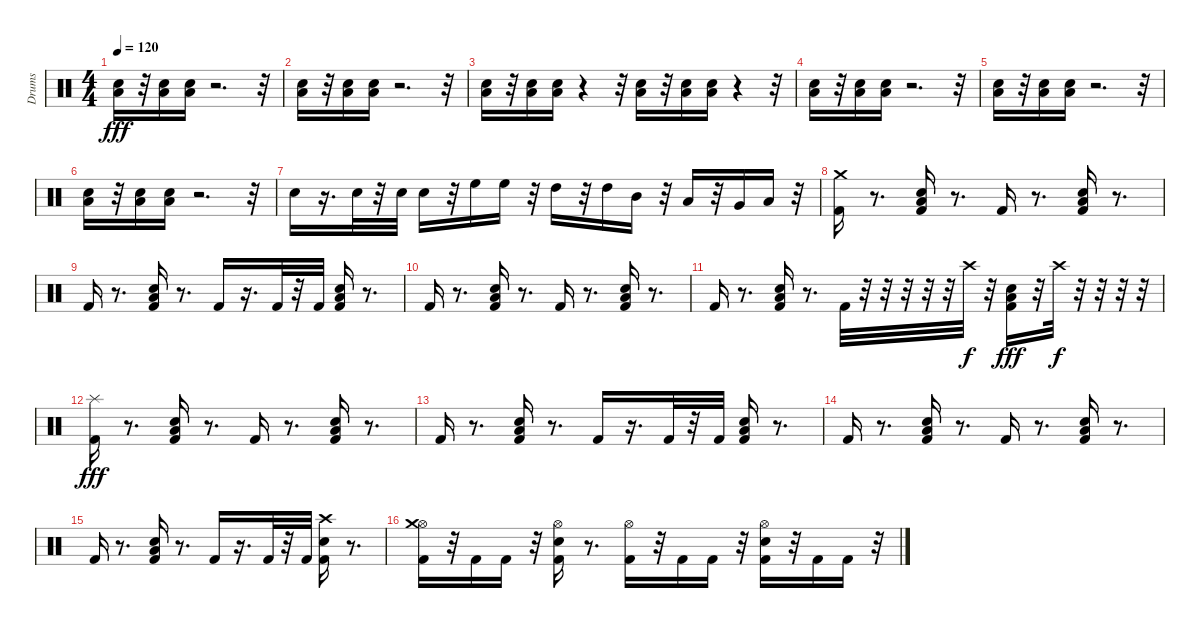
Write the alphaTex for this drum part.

\track ("Drums" "Drums") {instrument percussion}
\staff {score}
\articulation defaults
\ts (4 4)
\tempo 120
\clef neutral
\ks c
("Electric Snare (hit)" "Low Floor Tom (hit)").16{dy fff} r.32 ("Electric Snare (hit)" "Low Floor Tom (hit)").16 ("Electric Snare (hit)" "Low Floor Tom (hit)").16 r.2{d} r.32 |
("Electric Snare (hit)" "Low Floor Tom (hit)").16 r.32 ("Electric Snare (hit)" "Low Floor Tom (hit)").16 ("Electric Snare (hit)" "Low Floor Tom (hit)").16 r.2{d} r.32 |
("Electric Snare (hit)" "Low Floor Tom (hit)").16 r.32 ("Electric Snare (hit)" "Low Floor Tom (hit)").16 ("Electric Snare (hit)" "Low Floor Tom (hit)").16 r.4 r.32 ("Electric Snare (hit)" "Low Floor Tom (hit)").16 r.32 ("Electric Snare (hit)" "Low Floor Tom (hit)").16 ("Electric Snare (hit)" "Low Floor Tom (hit)").16 r.4 r.32 |
("Electric Snare (hit)" "Low Floor Tom (hit)").16 r.32 ("Electric Snare (hit)" "Low Floor Tom (hit)").16 ("Electric Snare (hit)" "Low Floor Tom (hit)").16 r.2{d} r.32 |
("Electric Snare (hit)" "Low Floor Tom (hit)").16 r.32 ("Electric Snare (hit)" "Low Floor Tom (hit)").16 ("Electric Snare (hit)" "Low Floor Tom (hit)").16 r.2{d} r.32 |
("Electric Snare (hit)" "Low Floor Tom (hit)").16 r.32 ("Electric Snare (hit)" "Low Floor Tom (hit)").16 ("Electric Snare (hit)" "Low Floor Tom (hit)").16 r.2{d} r.32 |
"Electric Snare (hit)".16 r.16{d} "Electric Snare (hit)".32 r.32 "Electric Snare (hit)".32 "Electric Snare (hit)".16 r.32 "High Floor Tom (hit)".16 "High Floor Tom (hit)".16 r.32 "High Tom (hit)".16 r.32 "High Tom (hit)".16 "Mid Tom (hit)".16 r.32 "Low Tom (hit)".16 r.32 "Very Low Tom (hit)".16 "Low Floor Tom (hit)".16 r.32 |
("Kick (hit) 2" "Crash medium (hit)").16 r.8{d} ("Electric Snare (hit)" "Low Floor Tom (hit)" "Kick (hit) 2").16 r.8{d} "Kick (hit) 2".16 r.8{d} ("Electric Snare (hit)" "Low Floor Tom (hit)" "Kick (hit) 2").16 r.8{d} |
"Kick (hit) 2".16 r.8{d} ("Electric Snare (hit)" "Low Floor Tom (hit)" "Kick (hit) 2").16 r.8{d} "Kick (hit) 2".16 r.16{d} "Kick (hit) 2".32 r.32 "Kick (hit) 2".32 ("Electric Snare (hit)" "Low Floor Tom (hit)" "Kick (hit) 2").16 r.8{d} |
"Kick (hit) 2".16 r.8{d} ("Electric Snare (hit)" "Low Floor Tom (hit)" "Kick (hit) 2").16 r.8{d} "Kick (hit) 2".16 r.8{d} ("Electric Snare (hit)" "Low Floor Tom (hit)" "Kick (hit) 2").16 r.8{d} |
"Kick (hit) 2".16 r.8{d} ("Electric Snare (hit)" "Low Floor Tom (hit)" "Kick (hit) 2").16 r.8{d} "Kick (hit) 2".32 r.32 r.32 r.32 r.32 r.32 "Crash high (hit)".32{dy f} r.32 ("Electric Snare (hit)" "Low Floor Tom (hit)" "Kick (hit) 2").16{dy fff} r.32 "Crash high (hit)".32{dy f} r.32 r.32 r.32 r.32 |
("Kick (hit) 2" "Splash (hit)").16{dy fff} r.8{d} ("Electric Snare (hit)" "Low Floor Tom (hit)" "Kick (hit) 2").16 r.8{d} "Kick (hit) 2".16 r.8{d} ("Electric Snare (hit)" "Low Floor Tom (hit)" "Kick (hit) 2").16 r.8{d} |
"Kick (hit) 2".16 r.8{d} ("Electric Snare (hit)" "Low Floor Tom (hit)" "Kick (hit) 2").16 r.8{d} "Kick (hit) 2".16 r.16{d} "Kick (hit) 2".32 r.32 "Kick (hit) 2".32 ("Electric Snare (hit)" "Low Floor Tom (hit)" "Kick (hit) 2").16 r.8{d} |
"Kick (hit) 2".16 r.8{d} ("Electric Snare (hit)" "Low Floor Tom (hit)" "Kick (hit) 2").16 r.8{d} "Kick (hit) 2".16 r.8{d} ("Electric Snare (hit)" "Low Floor Tom (hit)" "Kick (hit) 2").16 r.8{d} |
"Kick (hit) 2".16 r.8{d} ("Electric Snare (hit)" "Low Floor Tom (hit)" "Kick (hit) 2").16 r.8{d} "Kick (hit) 2".16 r.16{d} "Kick (hit) 2".32 r.32 "Kick (hit) 2".32 ("Electric Snare (hit)" "Kick (hit) 2" "Crash high (hit)").16 r.8{d} |
("Kick (hit) 2" "Hi-Hat (open)" "Crash medium (hit)").16 r.32 "Kick (hit) 2".16 "Kick (hit) 2".16 r.32 ("Electric Snare (hit)" "Kick (hit) 2" "Hi-Hat (open)").16 r.8{d} ("Kick (hit) 2" "Hi-Hat (open)").16 r.32 "Kick (hit) 2".16 "Kick (hit) 2".16 r.32 ("Electric Snare (hit)" "Kick (hit) 2" "Hi-Hat (open)").16 r.32 "Kick (hit) 2".16 "Kick (hit) 2".16 r.32
